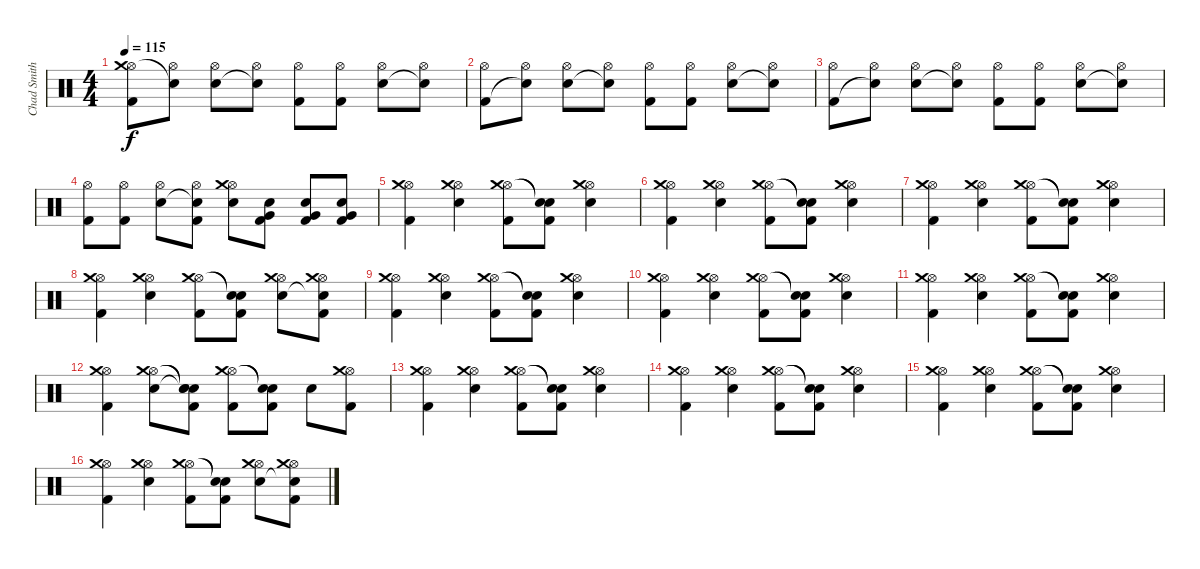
\track ("Chad Smith" "Chad Smith") {instrument percussion}
\staff {score}
\articulation defaults
\ts (4 4)
\tempo 115
\clef neutral
\ks c
("Hi-Hat (open)" "Crash medium (hit)" "Kick (hit) 2").8{dy f} ("Hi-Hat (open)" "Snare (hit)"{t}).8 ("Hi-Hat (open)" "Electric Snare (hit)").8 ("Hi-Hat (open)" "Snare (hit)"{t}).8 ("Hi-Hat (open)" "Kick (hit) 2").8 ("Hi-Hat (open)" "Kick (hit) 2").8 ("Hi-Hat (open)" "Electric Snare (hit)").8 ("Hi-Hat (open)" "Snare (hit)"{t}).8 |
("Hi-Hat (open)" "Kick (hit) 2").8 ("Hi-Hat (open)" "Snare (hit)"{t}).8 ("Hi-Hat (open)" "Electric Snare (hit)").8 ("Hi-Hat (open)" "Snare (hit)"{t}).8 ("Hi-Hat (open)" "Kick (hit) 2").8 ("Hi-Hat (open)" "Kick (hit) 2").8 ("Hi-Hat (open)" "Electric Snare (hit)").8 ("Hi-Hat (open)" "Snare (hit)"{t}).8 |
("Hi-Hat (open)" "Kick (hit) 2").8 ("Hi-Hat (open)" "Snare (hit)"{t}).8 ("Hi-Hat (open)" "Electric Snare (hit)").8 ("Hi-Hat (open)" "Snare (hit)"{t}).8 ("Hi-Hat (open)" "Kick (hit) 2").8 ("Hi-Hat (open)" "Kick (hit) 2").8 ("Hi-Hat (open)" "Electric Snare (hit)").8 ("Hi-Hat (open)" "Snare (hit)"{t}).8 |
("Hi-Hat (open)" "Kick (hit) 2").8 ("Hi-Hat (open)" "Kick (hit) 2").8 ("Hi-Hat (open)" "Electric Snare (hit)").8 ("Hi-Hat (open)" "Snare (hit)"{t} "Kick (hit) 2").8 ("Hi-Hat (open)" "Crash medium (hit)" "Electric Snare (hit)").8 ("Electric Snare (hit)" "Very Low Tom (hit)" "Kick (hit) 2").8 ("Electric Snare (hit)" "Very Low Tom (hit)" "Kick (hit) 2").8 ("Electric Snare (hit)" "Very Low Tom (hit)" "Kick (hit) 2").8 |
("Hi-Hat (open)" "Crash medium (hit)" "Kick (hit) 2").4 ("Hi-Hat (open)" "Crash medium (hit)" "Electric Snare (hit)").4 ("Hi-Hat (open)" "Crash medium (hit)" "Kick (hit) 2").8 ("Snare (hit)"{t} "Snare (hit)"{t} "Kick (hit) 2").8 ("Hi-Hat (open)" "Crash medium (hit)" "Electric Snare (hit)").4 |
("Hi-Hat (open)" "Crash medium (hit)" "Kick (hit) 2").4 ("Hi-Hat (open)" "Crash medium (hit)" "Electric Snare (hit)").4 ("Hi-Hat (open)" "Crash medium (hit)" "Kick (hit) 2").8 ("Snare (hit)"{t} "Snare (hit)"{t} "Kick (hit) 2").8 ("Hi-Hat (open)" "Crash medium (hit)" "Electric Snare (hit)").4 |
("Hi-Hat (open)" "Crash medium (hit)" "Kick (hit) 2").4 ("Hi-Hat (open)" "Crash medium (hit)" "Electric Snare (hit)").4 ("Hi-Hat (open)" "Crash medium (hit)" "Kick (hit) 2").8 ("Snare (hit)"{t} "Snare (hit)"{t} "Kick (hit) 2").8 ("Hi-Hat (open)" "Crash medium (hit)" "Electric Snare (hit)").4 |
("Hi-Hat (open)" "Crash medium (hit)" "Kick (hit) 2").4 ("Hi-Hat (open)" "Crash medium (hit)" "Electric Snare (hit)").4 ("Hi-Hat (open)" "Crash medium (hit)" "Kick (hit) 2").8 ("Snare (hit)"{t} "Snare (hit)"{t} "Kick (hit) 2").8 ("Hi-Hat (open)" "Crash medium (hit)" "Electric Snare (hit)").8 ("Hi-Hat (open)" "Crash medium (hit)" "Snare (hit)"{t} "Kick (hit) 2").8 |
("Hi-Hat (open)" "Crash medium (hit)" "Kick (hit) 2").4 ("Hi-Hat (open)" "Crash medium (hit)" "Electric Snare (hit)").4 ("Hi-Hat (open)" "Crash medium (hit)" "Kick (hit) 2").8 ("Snare (hit)"{t} "Snare (hit)"{t} "Kick (hit) 2").8 ("Hi-Hat (open)" "Crash medium (hit)" "Electric Snare (hit)").4 |
("Hi-Hat (open)" "Crash medium (hit)" "Kick (hit) 2").4 ("Hi-Hat (open)" "Crash medium (hit)" "Electric Snare (hit)").4 ("Hi-Hat (open)" "Crash medium (hit)" "Kick (hit) 2").8 ("Snare (hit)"{t} "Snare (hit)"{t} "Kick (hit) 2").8 ("Hi-Hat (open)" "Crash medium (hit)" "Electric Snare (hit)").4 |
("Hi-Hat (open)" "Crash medium (hit)" "Kick (hit) 2").4 ("Hi-Hat (open)" "Crash medium (hit)" "Electric Snare (hit)").4 ("Hi-Hat (open)" "Crash medium (hit)" "Kick (hit) 2").8 ("Snare (hit)"{t} "Snare (hit)"{t} "Kick (hit) 2").8 ("Hi-Hat (open)" "Crash medium (hit)" "Electric Snare (hit)").4 |
("Hi-Hat (open)" "Crash medium (hit)" "Kick (hit) 2").4 ("Hi-Hat (open)" "Crash medium (hit)" "Electric Snare (hit)").8 ("Snare (hit)"{t} "Snare (hit)"{t} "Snare (hit)"{t} "Kick (hit) 2").8 ("Hi-Hat (open)" "Crash medium (hit)" "Kick (hit) 2").8 ("Snare (hit)"{t} "Snare (hit)"{t} "Kick (hit) 2").8 "Electric Snare (hit)".8 ("Hi-Hat (open)" "Crash medium (hit)" "Kick (hit) 2").8 |
("Hi-Hat (open)" "Crash medium (hit)" "Kick (hit) 2").4 ("Hi-Hat (open)" "Crash medium (hit)" "Electric Snare (hit)").4 ("Hi-Hat (open)" "Crash medium (hit)" "Kick (hit) 2").8 ("Snare (hit)"{t} "Snare (hit)"{t} "Kick (hit) 2").8 ("Hi-Hat (open)" "Crash medium (hit)" "Electric Snare (hit)").4 |
("Hi-Hat (open)" "Crash medium (hit)" "Kick (hit) 2").4 ("Hi-Hat (open)" "Crash medium (hit)" "Electric Snare (hit)").4 ("Hi-Hat (open)" "Crash medium (hit)" "Kick (hit) 2").8 ("Snare (hit)"{t} "Snare (hit)"{t} "Kick (hit) 2").8 ("Hi-Hat (open)" "Crash medium (hit)" "Electric Snare (hit)").4 |
("Hi-Hat (open)" "Crash medium (hit)" "Kick (hit) 2").4 ("Hi-Hat (open)" "Crash medium (hit)" "Electric Snare (hit)").4 ("Hi-Hat (open)" "Crash medium (hit)" "Kick (hit) 2").8 ("Snare (hit)"{t} "Snare (hit)"{t} "Kick (hit) 2").8 ("Hi-Hat (open)" "Crash medium (hit)" "Electric Snare (hit)").4 |
("Hi-Hat (open)" "Crash medium (hit)" "Kick (hit) 2").4 ("Hi-Hat (open)" "Crash medium (hit)" "Electric Snare (hit)").4 ("Hi-Hat (open)" "Crash medium (hit)" "Kick (hit) 2").8 ("Snare (hit)"{t} "Snare (hit)"{t} "Kick (hit) 2").8 ("Hi-Hat (open)" "Crash medium (hit)" "Electric Snare (hit)").8 ("Hi-Hat (open)" "Crash medium (hit)" "Snare (hit)"{t} "Kick (hit) 2").8
